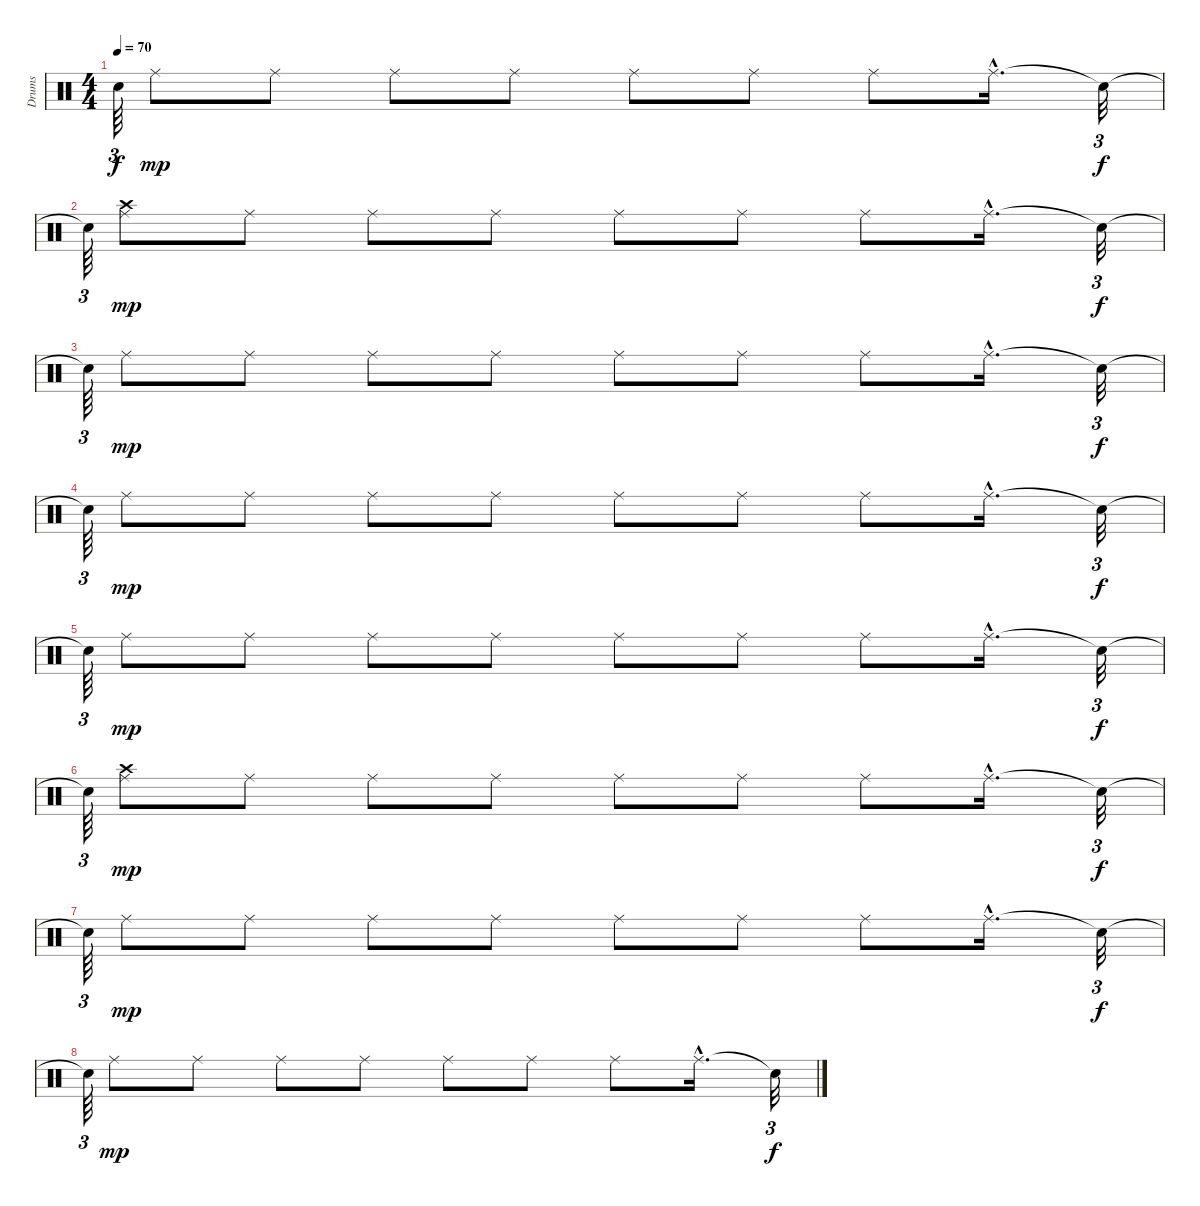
\track ("Drums               " "Drums     ") {instrument percussion}
\staff {score}
\articulation defaults
\ts (4 4)
\tempo 70
\clef neutral
\ks c "Snare (hit)"{t}.64{tu (3 2) dy f} "Ride (middle)".8{dy mp} "Ride (middle)".8 "Ride (middle)".8 "Ride (middle)".8 "Ride (middle)".8 "Ride (middle)".8 "Ride (middle)".8 "Ride (middle)"{hac}.16{d} "Snare (hit)"{t}.32{tu (3 2) dy f}
|
"Snare (hit)"{t}.64{tu (3 2)} ("Crash high (hit)" "Ride (middle)").8{dy mp} "Ride (middle)".8 "Ride (middle)".8 "Ride (middle)".8 "Ride (middle)".8 "Ride (middle)".8 "Ride (middle)".8 "Ride (middle)"{hac}.16{d} "Snare (hit)"{t}.32{tu (3 2) dy f} |
"Snare (hit)"{t}.64{tu (3 2)} "Ride (middle)".8{dy mp} "Ride (middle)".8 "Ride (middle)".8 "Ride (middle)".8 "Ride (middle)".8 "Ride (middle)".8 "Ride (middle)".8 "Ride (middle)"{hac}.16{d} "Snare (hit)"{t}.32{tu (3 2) dy f} |
"Snare (hit)"{t}.64{tu (3 2)} "Ride (middle)".8{dy mp} "Ride (middle)".8 "Ride (middle)".8 "Ride (middle)".8 "Ride (middle)".8 "Ride (middle)".8 "Ride (middle)".8 "Ride (middle)"{hac}.16{d} "Snare (hit)"{t}.32{tu (3 2) dy f} |
"Snare (hit)"{t}.64{tu (3 2)} "Ride (middle)".8{dy mp} "Ride (middle)".8 "Ride (middle)".8 "Ride (middle)".8 "Ride (middle)".8 "Ride (middle)".8 "Ride (middle)".8 "Ride (middle)"{hac}.16{d} "Snare (hit)"{t}.32{tu (3 2) dy f} |
"Snare (hit)"{t}.64{tu (3 2)} ("Crash high (hit)" "Ride (middle)").8{dy mp} "Ride (middle)".8 "Ride (middle)".8 "Ride (middle)".8 "Ride (middle)".8 "Ride (middle)".8 "Ride (middle)".8 "Ride (middle)"{hac}.16{d} "Snare (hit)"{t}.32{tu (3 2) dy f} |
"Snare (hit)"{t}.64{tu (3 2)} "Ride (middle)".8{dy mp} "Ride (middle)".8 "Ride (middle)".8 "Ride (middle)".8 "Ride (middle)".8 "Ride (middle)".8 "Ride (middle)".8 "Ride (middle)"{hac}.16{d} "Snare (hit)"{t}.32{tu (3 2) dy f} |
"Snare (hit)"{t}.64{tu (3 2)} "Ride (middle)".8{dy mp} "Ride (middle)".8 "Ride (middle)".8 "Ride (middle)".8 "Ride (middle)".8 "Ride (middle)".8 "Ride (middle)".8 "Ride (middle)"{hac}.16{d} "Snare (hit)"{t}.32{tu (3 2) dy f}
